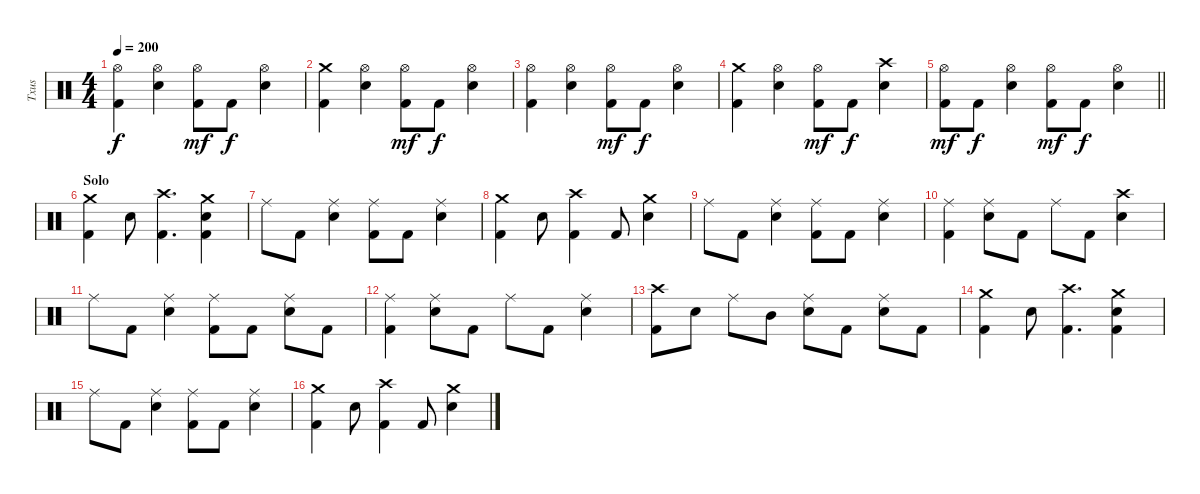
\track ("Txus" "Txus") {instrument percussion}
\staff {score}
\articulation defaults
\ts (4 4)
\tempo 200
\clef neutral
\ks c
("Hi-Hat (open)" "Kick (hit) 2").4{dy f} ("Hi-Hat (open)" "Snare (hit) 2").4 ("Hi-Hat (open)" "Kick (hit) 2").8{dy mf} "Kick (hit) 2".8{dy f} ("Hi-Hat (open)" "Snare (hit) 2").4 |
("Crash medium (hit)" "Kick (hit) 2").4 ("Hi-Hat (open)" "Snare (hit) 2").4 ("Hi-Hat (open)" "Kick (hit) 2").8{dy mf} "Kick (hit) 2".8{dy f} ("Hi-Hat (open)" "Snare (hit) 2").4 |
("Hi-Hat (open)" "Kick (hit) 2").4 ("Hi-Hat (open)" "Snare (hit) 2").4 ("Hi-Hat (open)" "Kick (hit) 2").8{dy mf} "Kick (hit) 2".8{dy f} ("Hi-Hat (open)" "Snare (hit) 2").4 |
("Crash medium (hit)" "Kick (hit) 2").4 ("Hi-Hat (open)" "Snare (hit) 2").4 ("Hi-Hat (open)" "Kick (hit) 2").8{dy mf} "Kick (hit) 2".8{dy f} ("Crash high (hit)" "Snare (hit) 2").4 |
\barLineRight lightlight
("Hi-Hat (open)" "Kick (hit) 2").8{dy mf} "Kick (hit) 2".8{dy f} ("Hi-Hat (open)" "Snare (hit) 2").4 ("Hi-Hat (open)" "Kick (hit) 2").8{dy mf} "Kick (hit) 2".8{dy f} ("Hi-Hat (open)" "Snare (hit) 2").4 |
\section ("" "Solo")
("Crash medium (hit)" "Kick (hit) 2").4 "Snare (hit) 2".8 ("Crash high (hit)" "Kick (hit) 2").4{d} ("Crash medium (hit)" "Snare (hit) 2" "Kick (hit) 2").4 |
"Ride (middle)".8 "Kick (hit) 2".8 ("Ride (middle)" "Snare (hit) 2").4 ("Ride (middle)" "Kick (hit) 2").8 "Kick (hit) 2".8 ("Ride (middle)" "Snare (hit) 2").4 |
("Crash medium (hit)" "Kick (hit) 2").4 "Snare (hit) 2".8 ("Crash high (hit)" "Kick (hit) 2").4 "Kick (hit) 2".8 ("Crash medium (hit)" "Snare (hit) 2").4 |
"Ride (middle)".8 "Kick (hit) 2".8 ("Ride (middle)" "Snare (hit) 2").4 ("Ride (middle)" "Kick (hit) 2").8 "Kick (hit) 2".8 ("Ride (middle)" "Snare (hit) 2").4 |
("Ride (middle)" "Kick (hit) 2").4 ("Ride (middle)" "Snare (hit) 2").8 "Kick (hit) 2".8 "Ride (middle)".8 "Kick (hit) 2".8 ("Crash high (hit)" "Snare (hit) 2").4 |
"Ride (middle)".8 "Kick (hit) 2".8 ("Ride (middle)" "Snare (hit) 2").4 ("Ride (middle)" "Kick (hit) 2").8 "Kick (hit) 2".8 ("Ride (middle)" "Snare (hit) 2").8 "Kick (hit) 2".8 |
("Ride (middle)" "Kick (hit) 2").4 ("Ride (middle)" "Snare (hit) 2").8 "Kick (hit) 2".8 "Ride (middle)".8 "Kick (hit) 2".8 ("Ride (middle)" "Snare (hit) 2").4 |
("Crash high (hit)" "Kick (hit) 2").8 "Snare (hit) 2".8 "Ride (middle)".8 "Mid Tom (hit)".8 ("Ride (middle)" "Snare (hit) 2").8 "Kick (hit) 2".8 ("Ride (middle)" "Snare (hit) 2").8 "Kick (hit) 2".8 |
("Crash medium (hit)" "Kick (hit) 2").4 "Snare (hit) 2".8 ("Crash high (hit)" "Kick (hit) 2").4{d} ("Crash medium (hit)" "Snare (hit) 2" "Kick (hit) 2").4 |
"Ride (middle)".8 "Kick (hit) 2".8 ("Ride (middle)" "Snare (hit) 2").4 ("Ride (middle)" "Kick (hit) 2").8 "Kick (hit) 2".8 ("Ride (middle)" "Snare (hit) 2").4 |
("Crash medium (hit)" "Kick (hit) 2").4 "Snare (hit) 2".8 ("Crash high (hit)" "Kick (hit) 2").4 "Kick (hit) 2".8 ("Crash medium (hit)" "Snare (hit) 2").4
